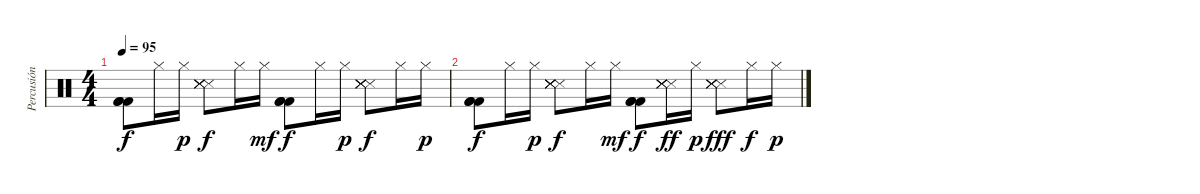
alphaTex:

\track ("Percusión" "Percusión") {instrument percussion}
\staff
\articulation defaults
\ts (4 4)
\tempo 95
\clef neutral
\ks c
("Kick (hit) 2" "Kick (hit) 2" "Kick (hit) 2").8{dy f} "Hi-Hat (closed)".16 "Hi-Hat (closed)".16{dy p} ("Metronome (hit)" "Metronome (hit)" "Metronome (hit)" "Metronome (hit)" "Metronome (hit)").8{dy f} "Hi-Hat (closed)".16 "Hi-Hat (closed)".16{dy mf} ("Kick (hit) 2" "Kick (hit) 2" "Kick (hit) 2").8{dy f} "Hi-Hat (closed)".16 "Hi-Hat (closed)".16{dy p} ("Metronome (hit)" "Metronome (hit)" "Metronome (hit)" "Metronome (hit)" "Metronome (hit)").8{dy f} "Hi-Hat (closed)".16 "Hi-Hat (closed)".16{dy p} |
("Kick (hit) 2" "Kick (hit) 2" "Kick (hit) 2").8{dy f} "Hi-Hat (closed)".16 "Hi-Hat (closed)".16{dy p} ("Metronome (hit)" "Metronome (hit)" "Metronome (hit)" "Metronome (hit)" "Metronome (hit)").8{dy f} "Hi-Hat (closed)".16 "Hi-Hat (closed)".16{dy mf} ("Kick (hit) 2" "Kick (hit) 2" "Kick (hit) 2").8{dy f} ("Metronome (hit)" "Metronome (hit)" "Metronome (hit)" "Metronome (hit)" "Metronome (hit)").16{dy ff} "Hi-Hat (closed)".16{dy p} ("Metronome (hit)" "Metronome (hit)" "Metronome (hit)" "Metronome (hit)" "Metronome (hit)").8{dy fff} "Hi-Hat (closed)".16{dy f} "Hi-Hat (closed)".16{dy p}
